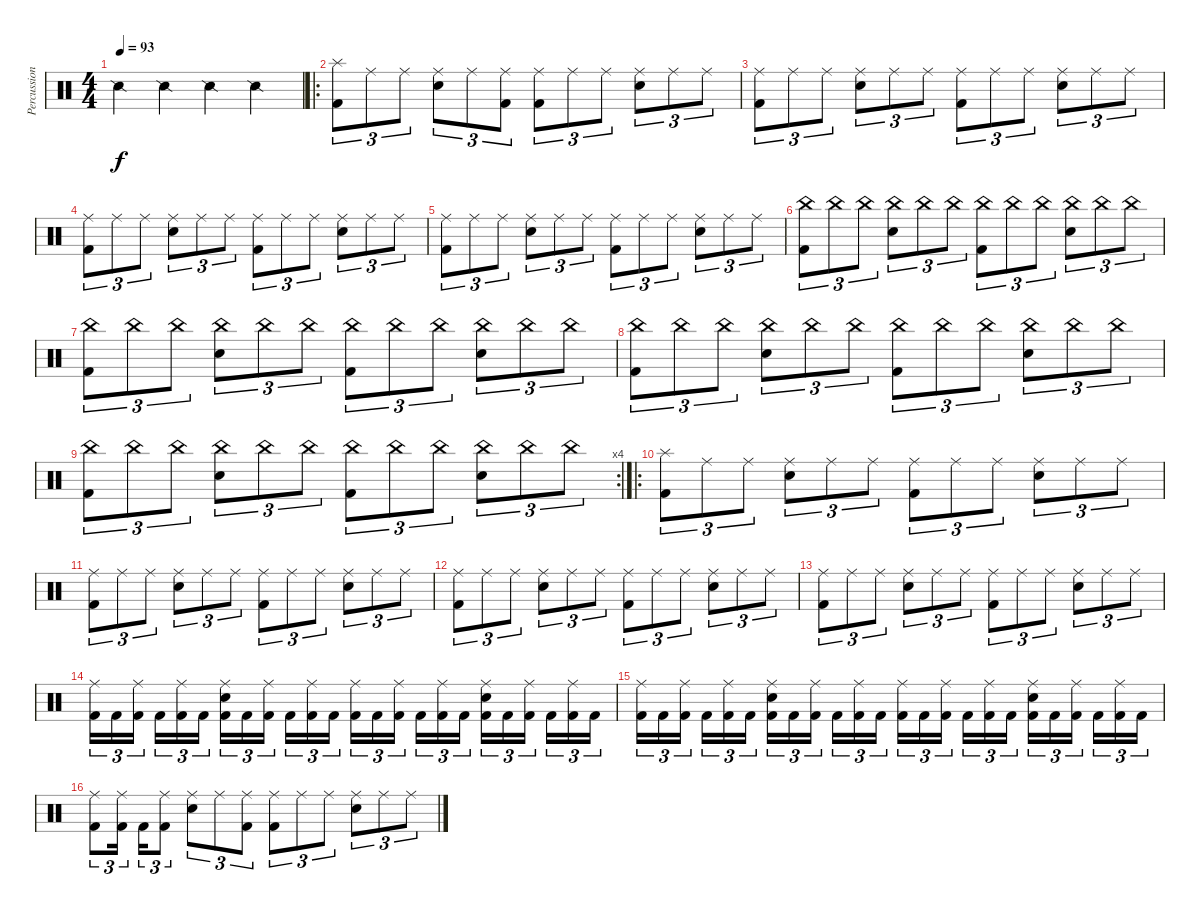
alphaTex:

\track ("Percussions" "Percussion") {instrument percussion}
\staff {score}
\articulation defaults
\ts (4 4)
\tempo 93
\clef neutral
\ks c "Snare (side stick) 2".4{dy f} "Snare (side stick) 2".4 "Snare (side stick) 2".4 "Snare (side stick) 2".4
|
\ro
("Splash (hit)" "Kick (hit) 2").8{tu (3 2)} "Ride (middle)".8{tu (3 2)} "Ride (middle)".8{tu (3 2)} ("Ride (middle)" "Snare (hit) 2").8{tu (3 2)} "Ride (middle)".8{tu (3 2)} ("Ride (middle)" "Kick (hit) 2").8{tu (3 2)} ("Ride (middle)" "Kick (hit) 2").8{tu (3 2)} "Ride (middle)".8{tu (3 2)} "Ride (middle)".8{tu (3 2)} ("Ride (middle)" "Snare (hit) 2").8{tu (3 2)} "Ride (middle)".8{tu (3 2)} "Ride (middle)".8{tu (3 2)} |
("Ride (middle)" "Kick (hit) 2").8{tu (3 2)} "Ride (middle)".8{tu (3 2)} "Ride (middle)".8{tu (3 2)} ("Ride (middle)" "Snare (hit) 2").8{tu (3 2)} "Ride (middle)".8{tu (3 2)} "Ride (middle)".8{tu (3 2)} ("Ride (middle)" "Kick (hit) 2").8{tu (3 2)} "Ride (middle)".8{tu (3 2)} "Ride (middle)".8{tu (3 2)} ("Ride (middle)" "Snare (hit) 2").8{tu (3 2)} "Ride (middle)".8{tu (3 2)} "Ride (middle)".8{tu (3 2)} |
("Ride (middle)" "Kick (hit) 2").8{tu (3 2)} "Ride (middle)".8{tu (3 2)} "Ride (middle)".8{tu (3 2)} ("Ride (middle)" "Snare (hit) 2").8{tu (3 2)} "Ride (middle)".8{tu (3 2)} "Ride (middle)".8{tu (3 2)} ("Ride (middle)" "Kick (hit) 2").8{tu (3 2)} "Ride (middle)".8{tu (3 2)} "Ride (middle)".8{tu (3 2)} ("Ride (middle)" "Snare (hit) 2").8{tu (3 2)} "Ride (middle)".8{tu (3 2)} "Ride (middle)".8{tu (3 2)} |
("Ride (middle)" "Kick (hit) 2").8{tu (3 2)} "Ride (middle)".8{tu (3 2)} "Ride (middle)".8{tu (3 2)} ("Ride (middle)" "Snare (hit) 2").8{tu (3 2)} "Ride (middle)".8{tu (3 2)} "Ride (middle)".8{tu (3 2)} ("Ride (middle)" "Kick (hit) 2").8{tu (3 2)} "Ride (middle)".8{tu (3 2)} "Ride (middle)".8{tu (3 2)} ("Ride (middle)" "Snare (hit) 2").8{tu (3 2)} "Ride (middle)".8{tu (3 2)} "Ride (middle)".8{tu (3 2)} |
("China (hit)" "Kick (hit) 2").8{tu (3 2)} "China (hit)".8{tu (3 2)} "China (hit)".8{tu (3 2)} ("China (hit)" "Snare (hit) 2").8{tu (3 2)} "China (hit)".8{tu (3 2)} "China (hit)".8{tu (3 2)} ("China (hit)" "Kick (hit) 2").8{tu (3 2)} "China (hit)".8{tu (3 2)} "China (hit)".8{tu (3 2)} ("China (hit)" "Snare (hit) 2").8{tu (3 2)} "China (hit)".8{tu (3 2)} "China (hit)".8{tu (3 2)} |
("China (hit)" "Kick (hit) 2").8{tu (3 2)} "China (hit)".8{tu (3 2)} "China (hit)".8{tu (3 2)} ("China (hit)" "Snare (hit) 2").8{tu (3 2)} "China (hit)".8{tu (3 2)} "China (hit)".8{tu (3 2)} ("China (hit)" "Kick (hit) 2").8{tu (3 2)} "China (hit)".8{tu (3 2)} "China (hit)".8{tu (3 2)} ("China (hit)" "Snare (hit) 2").8{tu (3 2)} "China (hit)".8{tu (3 2)} "China (hit)".8{tu (3 2)} |
("China (hit)" "Kick (hit) 2").8{tu (3 2)} "China (hit)".8{tu (3 2)} "China (hit)".8{tu (3 2)} ("China (hit)" "Snare (hit) 2").8{tu (3 2)} "China (hit)".8{tu (3 2)} "China (hit)".8{tu (3 2)} ("China (hit)" "Kick (hit) 2").8{tu (3 2)} "China (hit)".8{tu (3 2)} "China (hit)".8{tu (3 2)} ("China (hit)" "Snare (hit) 2").8{tu (3 2)} "China (hit)".8{tu (3 2)} "China (hit)".8{tu (3 2)} |
\rc 4
("China (hit)" "Kick (hit) 2").8{tu (3 2)} "China (hit)".8{tu (3 2)} "China (hit)".8{tu (3 2)} ("China (hit)" "Snare (hit) 2").8{tu (3 2)} "China (hit)".8{tu (3 2)} "China (hit)".8{tu (3 2)} ("China (hit)" "Kick (hit) 2").8{tu (3 2)} "China (hit)".8{tu (3 2)} "China (hit)".8{tu (3 2)} ("China (hit)" "Snare (hit) 2").8{tu (3 2)} "China (hit)".8{tu (3 2)} "China (hit)".8{tu (3 2)} |
\ro
("Splash (hit)" "Kick (hit) 2").8{tu (3 2)} "Ride (middle)".8{tu (3 2)} "Ride (middle)".8{tu (3 2)} ("Ride (middle)" "Snare (hit) 2").8{tu (3 2)} "Ride (middle)".8{tu (3 2)} "Ride (middle)".8{tu (3 2)} ("Ride (middle)" "Kick (hit) 2").8{tu (3 2)} "Ride (middle)".8{tu (3 2)} "Ride (middle)".8{tu (3 2)} ("Ride (middle)" "Snare (hit) 2").8{tu (3 2)} "Ride (middle)".8{tu (3 2)} "Ride (middle)".8{tu (3 2)} |
("Ride (middle)" "Kick (hit) 2").8{tu (3 2)} "Ride (middle)".8{tu (3 2)} "Ride (middle)".8{tu (3 2)} ("Ride (middle)" "Snare (hit) 2").8{tu (3 2)} "Ride (middle)".8{tu (3 2)} "Ride (middle)".8{tu (3 2)} ("Ride (middle)" "Kick (hit) 2").8{tu (3 2)} "Ride (middle)".8{tu (3 2)} "Ride (middle)".8{tu (3 2)} ("Ride (middle)" "Snare (hit) 2").8{tu (3 2)} "Ride (middle)".8{tu (3 2)} "Ride (middle)".8{tu (3 2)} |
("Ride (middle)" "Kick (hit) 2").8{tu (3 2)} "Ride (middle)".8{tu (3 2)} "Ride (middle)".8{tu (3 2)} ("Ride (middle)" "Snare (hit) 2").8{tu (3 2)} "Ride (middle)".8{tu (3 2)} "Ride (middle)".8{tu (3 2)} ("Ride (middle)" "Kick (hit) 2").8{tu (3 2)} "Ride (middle)".8{tu (3 2)} "Ride (middle)".8{tu (3 2)} ("Ride (middle)" "Snare (hit) 2").8{tu (3 2)} "Ride (middle)".8{tu (3 2)} "Ride (middle)".8{tu (3 2)} |
("Ride (middle)" "Kick (hit) 2").8{tu (3 2)} "Ride (middle)".8{tu (3 2)} "Ride (middle)".8{tu (3 2)} ("Ride (middle)" "Snare (hit) 2").8{tu (3 2)} "Ride (middle)".8{tu (3 2)} "Ride (middle)".8{tu (3 2)} ("Ride (middle)" "Kick (hit) 2").8{tu (3 2)} "Ride (middle)".8{tu (3 2)} "Ride (middle)".8{tu (3 2)} ("Ride (middle)" "Snare (hit) 2").8{tu (3 2)} "Ride (middle)".8{tu (3 2)} "Ride (middle)".8{tu (3 2)} |
("Ride (middle)" "Kick (hit) 2").16{tu (3 2)} "Kick (hit) 2".16{tu (3 2)} ("Ride (middle)" "Kick (hit) 2").16{tu (3 2)} "Kick (hit) 2".16{tu (3 2)} ("Ride (middle)" "Kick (hit) 2").16{tu (3 2)} "Kick (hit) 2".16{tu (3 2)} ("Ride (middle)" "Snare (hit) 2" "Kick (hit) 2").16{tu (3 2)} "Kick (hit) 2".16{tu (3 2)} ("Ride (middle)" "Kick (hit) 2").16{tu (3 2)} "Kick (hit) 2".16{tu (3 2)} ("Ride (middle)" "Kick (hit) 2").16{tu (3 2)} "Kick (hit) 2".16{tu (3 2)} ("Ride (middle)" "Kick (hit) 2").16{tu (3 2)} "Kick (hit) 2".16{tu (3 2)} ("Ride (middle)" "Kick (hit) 2").16{tu (3 2)} "Kick (hit) 2".16{tu (3 2)} ("Ride (middle)" "Kick (hit) 2").16{tu (3 2)} "Kick (hit) 2".16{tu (3 2)} ("Ride (middle)" "Snare (hit) 2" "Kick (hit) 2").16{tu (3 2)} "Kick (hit) 2".16{tu (3 2)} ("Ride (middle)" "Kick (hit) 2").16{tu (3 2)} "Kick (hit) 2".16{tu (3 2)} ("Ride (middle)" "Kick (hit) 2").16{tu (3 2)} "Kick (hit) 2".16{tu (3 2)} |
("Ride (middle)" "Kick (hit) 2").16{tu (3 2)} "Kick (hit) 2".16{tu (3 2)} ("Ride (middle)" "Kick (hit) 2").16{tu (3 2)} "Kick (hit) 2".16{tu (3 2)} ("Ride (middle)" "Kick (hit) 2").16{tu (3 2)} "Kick (hit) 2".16{tu (3 2)} ("Ride (middle)" "Snare (hit) 2" "Kick (hit) 2").16{tu (3 2)} "Kick (hit) 2".16{tu (3 2)} ("Ride (middle)" "Kick (hit) 2").16{tu (3 2)} "Kick (hit) 2".16{tu (3 2)} ("Ride (middle)" "Kick (hit) 2").16{tu (3 2)} "Kick (hit) 2".16{tu (3 2)} ("Ride (middle)" "Kick (hit) 2").16{tu (3 2)} "Kick (hit) 2".16{tu (3 2)} ("Ride (middle)" "Kick (hit) 2").16{tu (3 2)} "Kick (hit) 2".16{tu (3 2)} ("Ride (middle)" "Kick (hit) 2").16{tu (3 2)} "Kick (hit) 2".16{tu (3 2)} ("Ride (middle)" "Snare (hit) 2" "Kick (hit) 2").16{tu (3 2)} "Kick (hit) 2".16{tu (3 2)} ("Ride (middle)" "Kick (hit) 2").16{tu (3 2)} "Kick (hit) 2".16{tu (3 2)} ("Ride (middle)" "Kick (hit) 2").16{tu (3 2)} "Kick (hit) 2".16{tu (3 2)} |
("Ride (middle)" "Kick (hit) 2").8{tu (3 2)} ("Ride (middle)" "Kick (hit) 2").16{tu (3 2)} "Kick (hit) 2".16{tu (3 2)} ("Ride (middle)" "Kick (hit) 2").8{tu (3 2)} ("Ride (middle)" "Snare (hit) 2").8{tu (3 2)} "Ride (middle)".8{tu (3 2)} ("Ride (middle)" "Kick (hit) 2").8{tu (3 2)} ("Ride (middle)" "Kick (hit) 2").8{tu (3 2)} "Ride (middle)".8{tu (3 2)} "Ride (middle)".8{tu (3 2)} ("Ride (middle)" "Snare (hit) 2").8{tu (3 2)} "Ride (middle)".8{tu (3 2)} "Ride (middle)".8{tu (3 2)}
